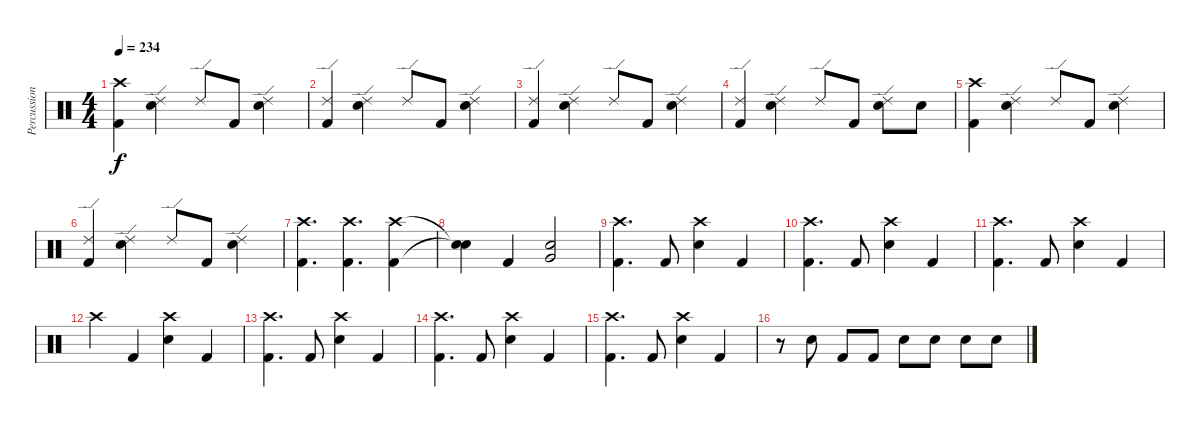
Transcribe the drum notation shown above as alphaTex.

\track ("Percussions" "Percussion") {instrument percussion}
\staff {score}
\articulation defaults
\ts (4 4)
\tempo 234
\clef neutral
\ks c
("Crash high (hit)" "Kick (hit) 2").4{dy f} ("Ride (edge) 2" "Snare (hit) 2").4 "Ride (edge) 2".8 "Kick (hit) 2".8 ("Ride (edge) 2" "Snare (hit) 2").4 |
("Ride (edge) 2" "Kick (hit) 2").4 ("Ride (edge) 2" "Snare (hit) 2").4 "Ride (edge) 2".8 "Kick (hit) 2".8 ("Ride (edge) 2" "Snare (hit) 2").4 |
("Ride (edge) 2" "Kick (hit) 2").4 ("Ride (edge) 2" "Snare (hit) 2").4 "Ride (edge) 2".8 "Kick (hit) 2".8 ("Ride (edge) 2" "Snare (hit) 2").4 |
("Ride (edge) 2" "Kick (hit) 2").4 ("Ride (edge) 2" "Snare (hit) 2").4 "Ride (edge) 2".8 "Kick (hit) 2".8 ("Ride (edge) 2" "Snare (hit) 2").8 "Snare (hit) 2".8 |
("Crash high (hit)" "Kick (hit) 2").4 ("Ride (edge) 2" "Snare (hit) 2").4 "Ride (edge) 2".8 "Kick (hit) 2".8 ("Ride (edge) 2" "Snare (hit) 2").4 |
("Ride (edge) 2" "Kick (hit) 2").4 ("Ride (edge) 2" "Snare (hit) 2").4 "Ride (edge) 2".8 "Kick (hit) 2".8 ("Ride (edge) 2" "Snare (hit) 2").4 |
("Crash high (hit)" "Kick (hit) 2").4{d} ("Crash high (hit)" "Kick (hit) 2").4{d} ("Crash high (hit)" "Kick (hit) 2").4 |
("Snare (hit)"{t} "Snare (hit)"{t}).4 "Kick (hit) 2".4 ("Snare (hit) 2" "Very Low Tom (hit)").2 |
("Crash high (hit)" "Kick (hit) 2").4{d} "Kick (hit) 2".8 ("Crash high (hit)" "Snare (hit) 2").4 "Kick (hit) 2".4 |
("Crash high (hit)" "Kick (hit) 2").4{d} "Kick (hit) 2".8 ("Crash high (hit)" "Snare (hit) 2").4 "Kick (hit) 2".4 |
("Crash high (hit)" "Kick (hit) 2").4{d} "Kick (hit) 2".8 ("Crash high (hit)" "Snare (hit) 2").4 "Kick (hit) 2".4 |
"Crash high (hit)".4 "Kick (hit) 2".4 ("Crash high (hit)" "Snare (hit) 2").4 "Kick (hit) 2".4 |
("Crash high (hit)" "Kick (hit) 2").4{d} "Kick (hit) 2".8 ("Crash high (hit)" "Snare (hit) 2").4 "Kick (hit) 2".4 |
("Crash high (hit)" "Kick (hit) 2").4{d} "Kick (hit) 2".8 ("Crash high (hit)" "Snare (hit) 2").4 "Kick (hit) 2".4 |
("Crash high (hit)" "Kick (hit) 2").4{d} "Kick (hit) 2".8 ("Crash high (hit)" "Snare (hit) 2").4 "Kick (hit) 2".4 |
r.8 "Snare (hit) 2".8 "Kick (hit) 2".8 "Kick (hit) 2".8 "Snare (hit) 2".8 "Snare (hit) 2".8 "Snare (hit) 2".8 "Snare (hit) 2".8
